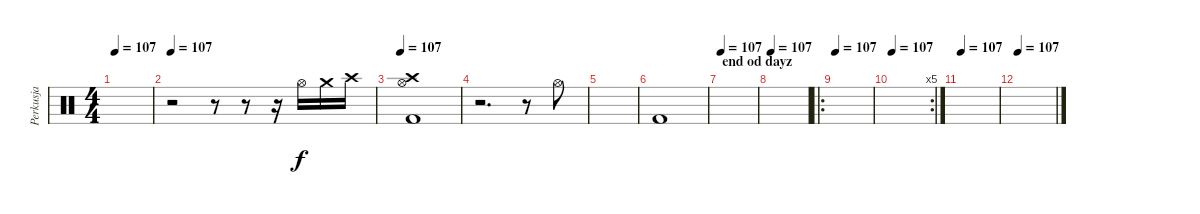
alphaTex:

\track ("Perkusja" "Perkusja") {instrument percussion}
\staff {score}
\articulation defaults
\ts (4 4)
\tempo 107
\clef neutral
\ks c
|
\tempo 107
r.2 r.8 r.8 r.16 "Hi-Hat (open)".16 "Crash medium (hit)".16 "Crash high (hit)".16 |
\tempo 107
("Kick (hit) 2" "Crash high (hit)" "Hi-Hat (open)").1 |
r.2{d} r.8 "Hi-Hat (open)".8 |
|
"Kick (hit) 2".1 |
\section ("" "end od dayz")
\tempo 107
|
\tempo 107
|
\ro
\tempo 107
|
\rc 5
\tempo 107
|
\tempo 107
|
\tempo 107
